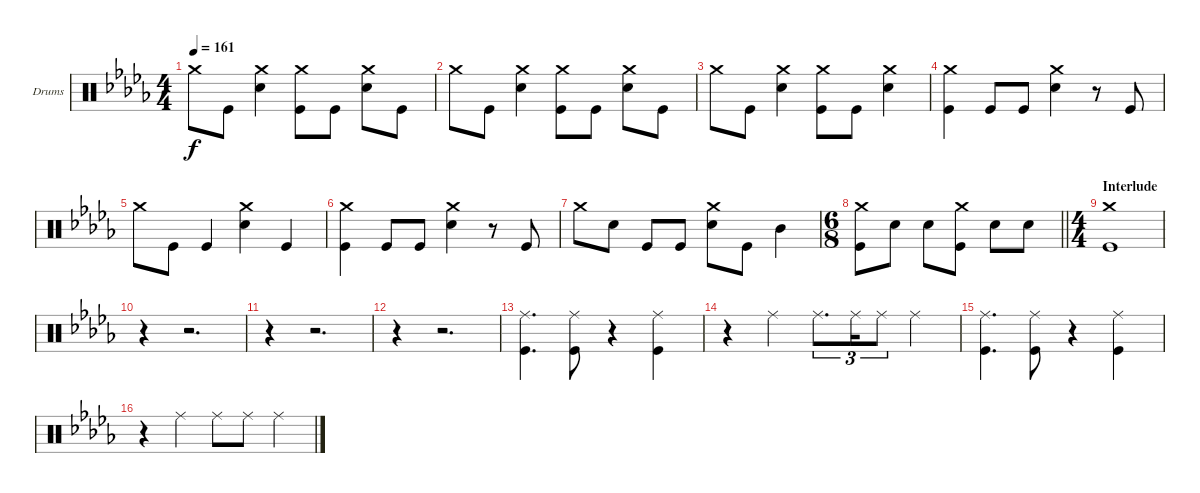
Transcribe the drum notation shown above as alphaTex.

\bracketExtendMode groupsimilarinstruments
\firstSystemTrackNameOrientation horizontal
\otherSystemsTrackNameOrientation horizontal
\track ("Drumkit" "Drums") {instrument percussion}
\staff {score}
\articulation defaults
\ts (4 4)
\tempo 161
\clef neutral
\ks db "Crash medium (hit)".8{dy f} "Kick (hit)".8
("Snare (hit) 2" "Crash medium (hit)").4 ("Kick (hit)" "Crash medium (hit)").8 "Kick (hit)".8 ("Snare (hit) 2" "Crash medium (hit)").8 "Kick (hit)".8 |
"Crash medium (hit)".8 "Kick (hit)".8 ("Snare (hit) 2" "Crash medium (hit)").4 ("Kick (hit)" "Crash medium (hit)").8 "Kick (hit)".8 ("Snare (hit) 2" "Crash medium (hit)").8 "Kick (hit)".8 |
"Crash medium (hit)".8 "Kick (hit)".8 ("Snare (hit) 2" "Crash medium (hit)").4 ("Kick (hit)" "Crash medium (hit)").8 "Kick (hit)".8 ("Snare (hit) 2" "Crash medium (hit)").4 |
("Crash medium (hit)" "Kick (hit)").4 "Kick (hit)".8 "Kick (hit)".8 ("Snare (hit) 2" "Crash medium (hit)").4 r.8 "Kick (hit)".8 |
"Crash medium (hit)".8 "Kick (hit)".8 "Kick (hit)".4 ("Snare (hit) 2" "Crash medium (hit)").4 "Kick (hit)".4 |
("Crash medium (hit)" "Kick (hit)").4 "Kick (hit)".8 "Kick (hit)".8 ("Snare (hit) 2" "Crash medium (hit)").4 r.8 "Kick (hit)".8 |
"Crash medium (hit)".8 "Snare (hit) 2".8 "Kick (hit)".8 "Kick (hit)".8 ("Snare (hit) 2" "Crash medium (hit)").8 "Kick (hit)".8 "Mid Tom (hit)".4 |
\ts (6 8)
\beaming (8 2 2 2 2)
\barLineRight lightlight
("Kick (hit)" "Crash medium (hit)").8 "Snare (hit) 2".8 "Snare (hit) 2".8 ("Kick (hit)" "Crash medium (hit)").8 "Snare (hit) 2".8 "Snare (hit) 2".8 |
\ts (4 4)
\beaming (8 2 2 2 2)
\section ("" "Interlude")
("Kick (hit)" "Crash medium (hit)").1 |
r.4 r.2{d} |
r.4 r.2{d} |
r.4 r.2{d} |
("Ride (middle)" "Kick (hit)").4{d} ("Ride (middle)" "Kick (hit)").8 r.4 ("Ride (middle)" "Kick (hit)").4 |
r.4 "Ride (middle)".4 "Ride (middle)".8{d tu (3 2)} "Ride (middle)".16{tu (3 2)} "Ride (middle)".8{tu (3 2)} "Ride (middle)".4 |
("Ride (middle)" "Kick (hit)").4{d} ("Ride (middle)" "Kick (hit)").8 r.4 ("Ride (middle)" "Kick (hit)").4 |
r.4 "Ride (middle)".4 "Ride (middle)".8 "Ride (middle)".8 "Ride (middle)".4
